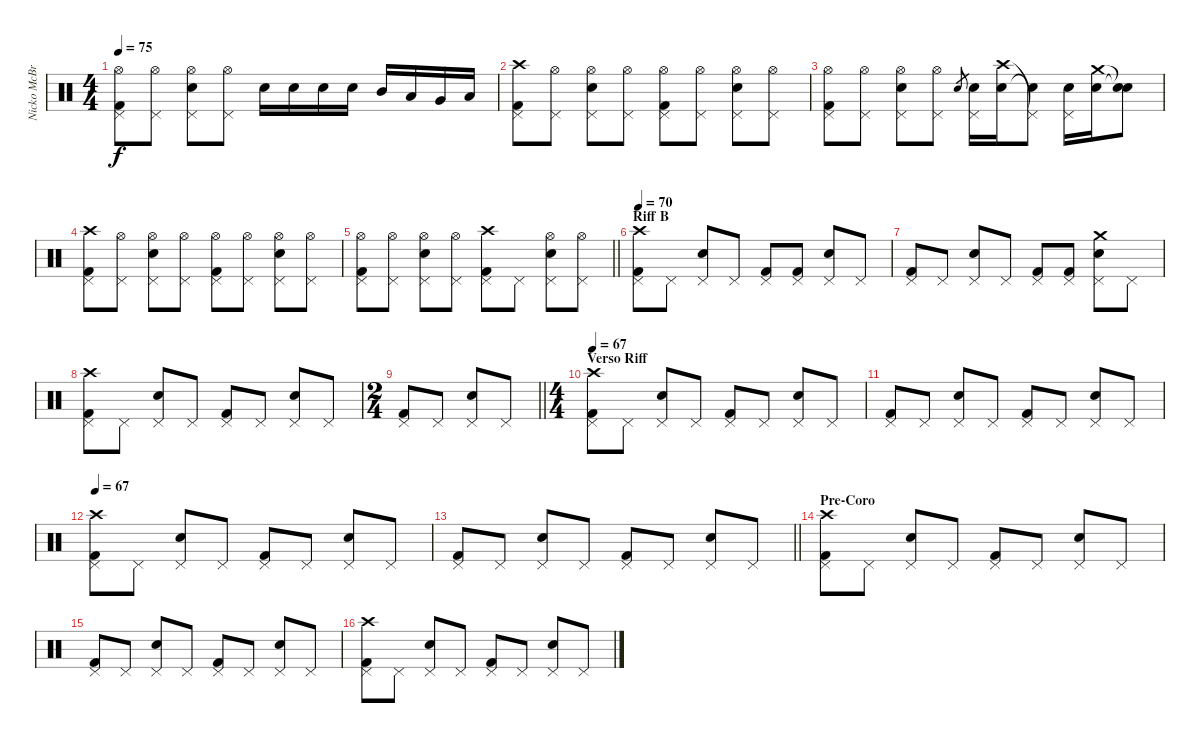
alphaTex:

\track ("Nicko McBrain" "Nicko McBr") {instrument percussion}
\staff {score}
\articulation defaults
\ts (4 4)
\tempo 75
\clef neutral
\ks c
("Kick (hit) 2" "Pedal Hi-Hat (hit)" "Hi-Hat (open)").8{dy f} ("Pedal Hi-Hat (hit)" "Hi-Hat (open)").8 ("Snare (hit) 2" "Pedal Hi-Hat (hit)" "Hi-Hat (open)").8 ("Pedal Hi-Hat (hit)" "Hi-Hat (open)").8 "Snare (hit) 2".16 "Snare (hit) 2".16 "Snare (hit) 2".16 "Snare (hit) 2".16 "Mid Tom (hit)".16 "Low Tom (hit)".16 "Very Low Tom (hit)".16 "Low Floor Tom (hit)".16 |
("Kick (hit) 2" "Pedal Hi-Hat (hit)" "Crash high (hit)").8 ("Pedal Hi-Hat (hit)" "Hi-Hat (open)").8 ("Snare (hit) 2" "Pedal Hi-Hat (hit)" "Hi-Hat (open)").8 ("Pedal Hi-Hat (hit)" "Hi-Hat (open)").8 ("Kick (hit) 2" "Pedal Hi-Hat (hit)" "Hi-Hat (open)").8 ("Pedal Hi-Hat (hit)" "Hi-Hat (open)").8 ("Snare (hit) 2" "Pedal Hi-Hat (hit)" "Hi-Hat (open)").8 ("Pedal Hi-Hat (hit)" "Hi-Hat (open)").8 |
("Kick (hit) 2" "Pedal Hi-Hat (hit)" "Hi-Hat (open)").8 ("Pedal Hi-Hat (hit)" "Hi-Hat (open)").8 ("Snare (hit) 2" "Pedal Hi-Hat (hit)" "Hi-Hat (open)").8 ("Pedal Hi-Hat (hit)" "Hi-Hat (open)").8 "Snare (hit) 2".8{gr} ("Snare (hit) 2" "Pedal Hi-Hat (hit)").16 ("Snare (hit) 2" "Crash high (hit)").16 ("Snare (hit) 2"{t} "Pedal Hi-Hat (hit)"{t}).8 ("Snare (hit) 2" "Pedal Hi-Hat (hit)").16 ("Snare (hit) 2" "Crash medium (hit)").16 ("Snare (hit)"{t} "Snare (hit)"{t}).8 |
("Kick (hit) 2" "Pedal Hi-Hat (hit)" "Crash high (hit)").8 ("Pedal Hi-Hat (hit)" "Hi-Hat (open)").8 ("Snare (hit) 2" "Pedal Hi-Hat (hit)" "Hi-Hat (open)").8 ("Pedal Hi-Hat (hit)" "Hi-Hat (open)").8 ("Kick (hit) 2" "Pedal Hi-Hat (hit)" "Hi-Hat (open)").8 ("Pedal Hi-Hat (hit)" "Hi-Hat (open)").8 ("Snare (hit) 2" "Pedal Hi-Hat (hit)" "Hi-Hat (open)").8 ("Pedal Hi-Hat (hit)" "Hi-Hat (open)").8 |
\barLineRight lightlight
("Kick (hit) 2" "Pedal Hi-Hat (hit)" "Hi-Hat (open)").8 ("Pedal Hi-Hat (hit)" "Hi-Hat (open)").8 ("Snare (hit) 2" "Pedal Hi-Hat (hit)" "Hi-Hat (open)").8 ("Pedal Hi-Hat (hit)" "Hi-Hat (open)").8 ("Kick (hit) 2" "Pedal Hi-Hat (hit)" "Crash high (hit)").8 "Pedal Hi-Hat (hit)".8 ("Snare (hit) 2" "Pedal Hi-Hat (hit)" "Hi-Hat (open)").8 ("Pedal Hi-Hat (hit)" "Hi-Hat (open)").8 |
\section ("" "Riff B")
\tempo 70
("Kick (hit) 2" "Pedal Hi-Hat (hit)" "Crash high (hit)").8 "Pedal Hi-Hat (hit)".8 ("Snare (hit) 2" "Pedal Hi-Hat (hit)").8 "Pedal Hi-Hat (hit)".8 ("Kick (hit) 2" "Pedal Hi-Hat (hit)").8 ("Pedal Hi-Hat (hit)" "Kick (hit) 2").8 ("Snare (hit) 2" "Pedal Hi-Hat (hit)").8 "Pedal Hi-Hat (hit)".8 |
("Kick (hit) 2" "Pedal Hi-Hat (hit)").8 "Pedal Hi-Hat (hit)".8 ("Snare (hit) 2" "Pedal Hi-Hat (hit)").8 "Pedal Hi-Hat (hit)".8 ("Kick (hit) 2" "Pedal Hi-Hat (hit)").8 ("Pedal Hi-Hat (hit)" "Kick (hit) 2").8 ("Snare (hit) 2" "Pedal Hi-Hat (hit)" "Crash medium (hit)").8 "Pedal Hi-Hat (hit)".8 |
("Kick (hit) 2" "Pedal Hi-Hat (hit)" "Crash high (hit)").8 "Pedal Hi-Hat (hit)".8 ("Snare (hit) 2" "Pedal Hi-Hat (hit)").8 "Pedal Hi-Hat (hit)".8 ("Kick (hit) 2" "Pedal Hi-Hat (hit)").8 "Pedal Hi-Hat (hit)".8 ("Snare (hit) 2" "Pedal Hi-Hat (hit)").8 "Pedal Hi-Hat (hit)".8 |
\ts (2 4)
\barLineRight lightlight
("Kick (hit) 2" "Pedal Hi-Hat (hit)").8 "Pedal Hi-Hat (hit)".8 ("Snare (hit) 2" "Pedal Hi-Hat (hit)").8 "Pedal Hi-Hat (hit)".8 |
\ts (4 4)
\section ("" "Verso Riff")
\tempo 67
("Kick (hit) 2" "Pedal Hi-Hat (hit)" "Crash high (hit)").8 "Pedal Hi-Hat (hit)".8 ("Snare (hit) 2" "Pedal Hi-Hat (hit)").8 "Pedal Hi-Hat (hit)".8 ("Kick (hit) 2" "Pedal Hi-Hat (hit)").8 "Pedal Hi-Hat (hit)".8 ("Snare (hit) 2" "Pedal Hi-Hat (hit)").8 "Pedal Hi-Hat (hit)".8 |
("Kick (hit) 2" "Pedal Hi-Hat (hit)").8 "Pedal Hi-Hat (hit)".8 ("Snare (hit) 2" "Pedal Hi-Hat (hit)").8 "Pedal Hi-Hat (hit)".8 ("Kick (hit) 2" "Pedal Hi-Hat (hit)").8 "Pedal Hi-Hat (hit)".8 ("Snare (hit) 2" "Pedal Hi-Hat (hit)").8 "Pedal Hi-Hat (hit)".8 |
\tempo 67
("Kick (hit) 2" "Pedal Hi-Hat (hit)" "Crash high (hit)").8 "Pedal Hi-Hat (hit)".8 ("Snare (hit) 2" "Pedal Hi-Hat (hit)").8 "Pedal Hi-Hat (hit)".8 ("Kick (hit) 2" "Pedal Hi-Hat (hit)").8 "Pedal Hi-Hat (hit)".8 ("Snare (hit) 2" "Pedal Hi-Hat (hit)").8 "Pedal Hi-Hat (hit)".8 |
\barLineRight lightlight
("Kick (hit) 2" "Pedal Hi-Hat (hit)").8 "Pedal Hi-Hat (hit)".8 ("Snare (hit) 2" "Pedal Hi-Hat (hit)").8 "Pedal Hi-Hat (hit)".8 ("Kick (hit) 2" "Pedal Hi-Hat (hit)").8 "Pedal Hi-Hat (hit)".8 ("Snare (hit) 2" "Pedal Hi-Hat (hit)").8 "Pedal Hi-Hat (hit)".8 |
\section ("" "Pre-Coro")
("Kick (hit) 2" "Pedal Hi-Hat (hit)" "Crash high (hit)").8 "Pedal Hi-Hat (hit)".8 ("Snare (hit) 2" "Pedal Hi-Hat (hit)").8 "Pedal Hi-Hat (hit)".8 ("Kick (hit) 2" "Pedal Hi-Hat (hit)").8 "Pedal Hi-Hat (hit)".8 ("Snare (hit) 2" "Pedal Hi-Hat (hit)").8 "Pedal Hi-Hat (hit)".8 |
("Kick (hit) 2" "Pedal Hi-Hat (hit)").8 "Pedal Hi-Hat (hit)".8 ("Snare (hit) 2" "Pedal Hi-Hat (hit)").8 "Pedal Hi-Hat (hit)".8 ("Kick (hit) 2" "Pedal Hi-Hat (hit)").8 "Pedal Hi-Hat (hit)".8 ("Snare (hit) 2" "Pedal Hi-Hat (hit)").8 "Pedal Hi-Hat (hit)".8 |
("Kick (hit) 2" "Pedal Hi-Hat (hit)" "Crash high (hit)").8 "Pedal Hi-Hat (hit)".8 ("Snare (hit) 2" "Pedal Hi-Hat (hit)").8 "Pedal Hi-Hat (hit)".8 ("Kick (hit) 2" "Pedal Hi-Hat (hit)").8 "Pedal Hi-Hat (hit)".8 ("Snare (hit) 2" "Pedal Hi-Hat (hit)").8 "Pedal Hi-Hat (hit)".8
